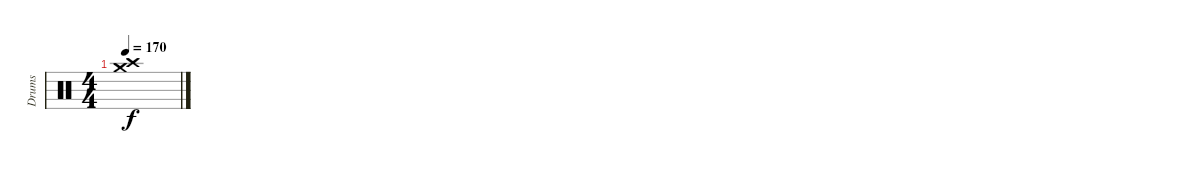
\track ("Drums" "Drums") {instrument percussion}
\staff {score}
\articulation defaults
\ts (4 4)
\tempo 170
\clef neutral
\ks c
("Crash high (hit)" "Crash medium (hit)").1{dy f}
